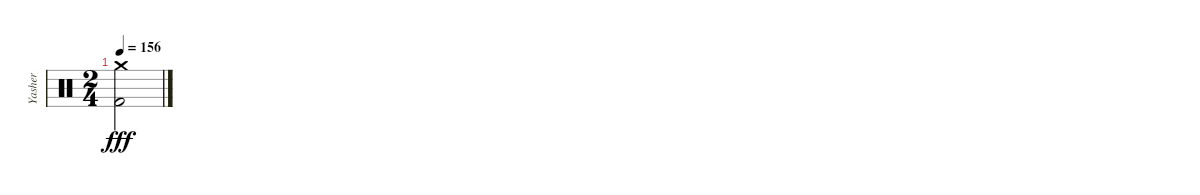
\track ("Yasher" "Yasher") {instrument percussion}
\staff {score}
\articulation defaults
\ts (2 4)
\tempo 156
\clef neutral
\ks c
("Crash medium (hit)" "Kick (hit) 2").2{dy fff}
